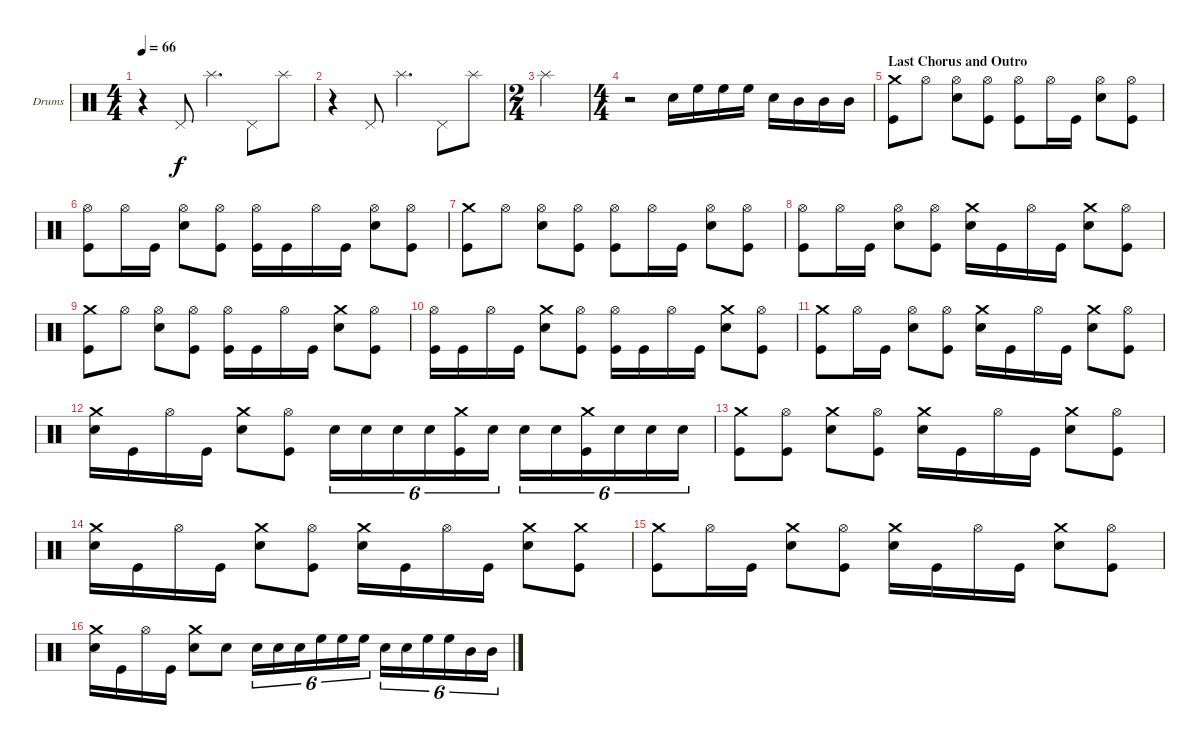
\bracketExtendMode groupsimilarinstruments
\firstSystemTrackNameOrientation horizontal
\otherSystemsTrackNameOrientation horizontal
\track ("Drumkit" "Drums") {instrument percussion}
\staff {score}
\articulation defaults
\ts (4 4)
\tempo 66
\clef neutral
\ks c
r.4{dy f} "Pedal Hi-Hat (hit)".8 "Splash (hit)".4{d} "Pedal Hi-Hat (hit)".8 "Splash (hit)".8 |
r.4 "Pedal Hi-Hat (hit)".8 "Splash (hit)".4{d} "Pedal Hi-Hat (hit)".8 "Splash (hit)".8 |
\ts (2 4)
"Splash (hit)".2 |
\ts (4 4)
r.2 "Snare (hit) 2".16 "High Floor Tom (hit)".16 "High Floor Tom (hit)".16 "High Floor Tom (hit)".16 "Snare (hit) 2".16 "Mid Tom (hit)".16 "Mid Tom (hit)".16 "Mid Tom (hit)".16 |
\section ("" "Last Chorus and Outro")
("Crash medium (hit)" "Kick (hit)").8 "Hi-Hat (open)".8 ("Hi-Hat (open)" "Snare (hit) 2").8 ("Hi-Hat (open)" "Kick (hit)").8 ("Hi-Hat (open)" "Kick (hit)").8 "Hi-Hat (open)".16 "Kick (hit)".16 ("Hi-Hat (open)" "Snare (hit) 2").8 ("Hi-Hat (open)" "Kick (hit)").8 |
("Hi-Hat (open)" "Kick (hit)").8 "Hi-Hat (open)".16 "Kick (hit)".16 ("Hi-Hat (open)" "Snare (hit) 2").8 ("Hi-Hat (open)" "Kick (hit)").8 ("Hi-Hat (open)" "Kick (hit)").16 "Kick (hit)".16 "Hi-Hat (open)".16 "Kick (hit)".16 ("Hi-Hat (open)" "Snare (hit) 2").8 ("Hi-Hat (open)" "Kick (hit)").8 |
("Crash medium (hit)" "Kick (hit)").8 "Hi-Hat (open)".8 ("Hi-Hat (open)" "Snare (hit) 2").8 ("Hi-Hat (open)" "Kick (hit)").8 ("Hi-Hat (open)" "Kick (hit)").8 "Hi-Hat (open)".16 "Kick (hit)".16 ("Hi-Hat (open)" "Snare (hit) 2").8 ("Hi-Hat (open)" "Kick (hit)").8 |
("Hi-Hat (open)" "Kick (hit)").8 "Hi-Hat (open)".16 "Kick (hit)".16 ("Hi-Hat (open)" "Snare (hit) 2").8 ("Hi-Hat (open)" "Kick (hit)").8 ("Crash medium (hit)" "Snare (hit) 2").16 "Kick (hit)".16 "Hi-Hat (open)".16 "Kick (hit)".16 ("Crash medium (hit)" "Snare (hit) 2").8 ("Hi-Hat (open)" "Kick (hit)").8 |
("Crash medium (hit)" "Kick (hit)").8 "Hi-Hat (open)".8 ("Hi-Hat (open)" "Snare (hit) 2").8 ("Hi-Hat (open)" "Kick (hit)").8 ("Hi-Hat (open)" "Kick (hit)").16 "Kick (hit)".16 "Hi-Hat (open)".16 "Kick (hit)".16 ("Crash medium (hit)" "Snare (hit) 2").8 ("Hi-Hat (open)" "Kick (hit)").8 |
("Hi-Hat (open)" "Kick (hit)").16 "Kick (hit)".16 "Hi-Hat (open)".16 "Kick (hit)".16 ("Crash medium (hit)" "Snare (hit) 2").8 ("Hi-Hat (open)" "Kick (hit)").8 ("Hi-Hat (open)" "Kick (hit)").16 "Kick (hit)".16 "Hi-Hat (open)".16 "Kick (hit)".16 ("Crash medium (hit)" "Snare (hit) 2").8 ("Hi-Hat (open)" "Kick (hit)").8 |
("Crash medium (hit)" "Kick (hit)").8 "Hi-Hat (open)".16 "Kick (hit)".16 ("Hi-Hat (open)" "Snare (hit) 2").8 ("Hi-Hat (open)" "Kick (hit)").8 ("Crash medium (hit)" "Snare (hit) 2").16 "Kick (hit)".16 "Hi-Hat (open)".16 "Kick (hit)".16 ("Crash medium (hit)" "Snare (hit) 2").8 ("Hi-Hat (open)" "Kick (hit)").8 |
("Crash medium (hit)" "Snare (hit) 2").16 "Kick (hit)".16 "Hi-Hat (open)".16 "Kick (hit)".16 ("Crash medium (hit)" "Snare (hit) 2").8 ("Hi-Hat (open)" "Kick (hit)").8 "Snare (hit) 2".16{tu (6 4)} "Snare (hit) 2".16{tu (6 4)} "Snare (hit) 2".16{tu (6 4)} "Snare (hit) 2".16{tu (6 4)} ("Crash medium (hit)" "Kick (hit)").16{tu (6 4)} "Snare (hit) 2".16{tu (6 4)} "Snare (hit) 2".16{tu (6 4)} "Snare (hit) 2".16{tu (6 4)} ("Crash medium (hit)" "Kick (hit)").16{tu (6 4)} "Snare (hit) 2".16{tu (6 4)} "Snare (hit) 2".16{tu (6 4)} "Snare (hit) 2".16{tu (6 4)} |
("Crash medium (hit)" "Kick (hit)").8 ("Hi-Hat (open)" "Kick (hit)").8 ("Crash medium (hit)" "Snare (hit) 2").8 ("Hi-Hat (open)" "Kick (hit)").8 ("Crash medium (hit)" "Snare (hit) 2").16 "Kick (hit)".16 "Hi-Hat (open)".16 "Kick (hit)".16 ("Crash medium (hit)" "Snare (hit) 2").8 ("Hi-Hat (open)" "Kick (hit)").8 |
("Crash medium (hit)" "Snare (hit) 2").16 "Kick (hit)".16 "Hi-Hat (open)".16 "Kick (hit)".16 ("Crash medium (hit)" "Snare (hit) 2").8 ("Hi-Hat (open)" "Kick (hit)").8 ("Crash medium (hit)" "Snare (hit) 2").16 "Kick (hit)".16 "Hi-Hat (open)".16 "Kick (hit)".16 ("Crash medium (hit)" "Snare (hit) 2").8 ("Crash medium (hit)" "Kick (hit)").8 |
("Crash medium (hit)" "Kick (hit)").8 "Hi-Hat (open)".16 "Kick (hit)".16 ("Crash medium (hit)" "Snare (hit) 2").8 ("Hi-Hat (open)" "Kick (hit)").8 ("Crash medium (hit)" "Snare (hit) 2").16 "Kick (hit)".16 "Hi-Hat (open)".16 "Kick (hit)".16 ("Crash medium (hit)" "Snare (hit) 2").8 ("Hi-Hat (open)" "Kick (hit)").8 |
("Crash medium (hit)" "Snare (hit) 2").16 "Kick (hit)".16 "Hi-Hat (open)".16 "Kick (hit)".16 ("Crash medium (hit)" "Snare (hit) 2").8 "Snare (hit) 2".8 "Snare (hit) 2".16{tu (6 4)} "Snare (hit) 2".16{tu (6 4)} "Snare (hit) 2".16{tu (6 4)} "High Floor Tom (hit)".16{tu (6 4)} "High Floor Tom (hit)".16{tu (6 4)} "High Floor Tom (hit)".16{tu (6 4)} "Snare (hit) 2".16{tu (6 4)} "Snare (hit) 2".16{tu (6 4)} "High Floor Tom (hit)".16{tu (6 4)} "High Floor Tom (hit)".16{tu (6 4)} "Mid Tom (hit)".16{tu (6 4)} "Mid Tom (hit)".16{tu (6 4)}
